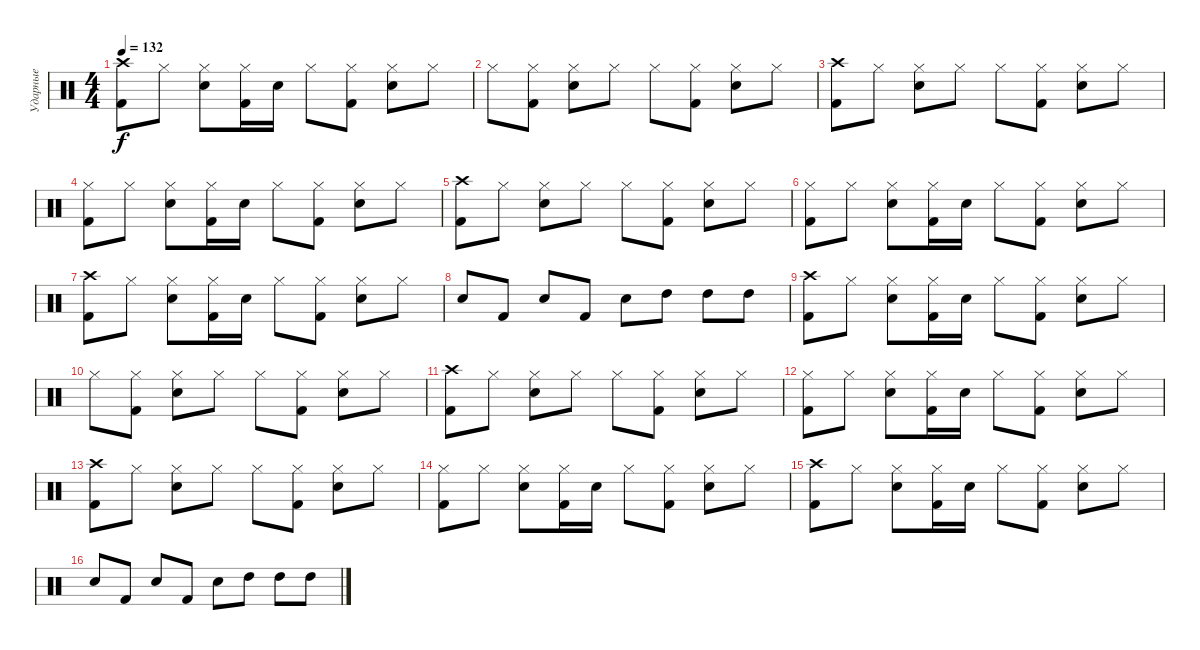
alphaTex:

\track ("Ударные" "Ударные") {instrument percussion}
\staff {score}
\articulation defaults
\ts (4 4)
\tempo 132
\clef neutral
\ks c
("Kick (hit) 2" "Crash high (hit)").8{dy f} "Hi-Hat (closed)".8 ("Electric Snare (hit)" "Hi-Hat (closed)").8 ("Kick (hit) 2" "Hi-Hat (closed)").16 "Electric Snare (hit)".16 "Hi-Hat (closed)".8 ("Kick (hit) 2" "Hi-Hat (closed)").8 ("Electric Snare (hit)" "Hi-Hat (closed)").8 "Hi-Hat (closed)".8 |
"Hi-Hat (closed)".8 ("Kick (hit) 2" "Hi-Hat (closed)").8 ("Electric Snare (hit)" "Hi-Hat (closed)").8 "Hi-Hat (closed)".8 "Hi-Hat (closed)".8 ("Kick (hit) 2" "Hi-Hat (closed)").8 ("Electric Snare (hit)" "Hi-Hat (closed)").8 "Hi-Hat (closed)".8 |
("Kick (hit) 2" "Crash high (hit)").8 "Hi-Hat (closed)".8 ("Electric Snare (hit)" "Hi-Hat (closed)").8 "Hi-Hat (closed)".8 "Hi-Hat (closed)".8 ("Kick (hit) 2" "Hi-Hat (closed)").8 ("Electric Snare (hit)" "Hi-Hat (closed)").8 "Hi-Hat (closed)".8 |
("Kick (hit) 2" "Hi-Hat (closed)").8 "Hi-Hat (closed)".8 ("Electric Snare (hit)" "Hi-Hat (closed)").8 ("Kick (hit) 2" "Hi-Hat (closed)").16 "Electric Snare (hit)".16 "Hi-Hat (closed)".8 ("Kick (hit) 2" "Hi-Hat (closed)").8 ("Electric Snare (hit)" "Hi-Hat (closed)").8 "Hi-Hat (closed)".8 |
("Kick (hit) 2" "Crash high (hit)").8 "Hi-Hat (closed)".8 ("Electric Snare (hit)" "Hi-Hat (closed)").8 "Hi-Hat (closed)".8 "Hi-Hat (closed)".8 ("Kick (hit) 2" "Hi-Hat (closed)").8 ("Electric Snare (hit)" "Hi-Hat (closed)").8 "Hi-Hat (closed)".8 |
("Kick (hit) 2" "Hi-Hat (closed)").8 "Hi-Hat (closed)".8 ("Electric Snare (hit)" "Hi-Hat (closed)").8 ("Kick (hit) 2" "Hi-Hat (closed)").16 "Electric Snare (hit)".16 "Hi-Hat (closed)".8 ("Kick (hit) 2" "Hi-Hat (closed)").8 ("Electric Snare (hit)" "Hi-Hat (closed)").8 "Hi-Hat (closed)".8 |
("Kick (hit) 2" "Crash high (hit)").8 "Hi-Hat (closed)".8 ("Electric Snare (hit)" "Hi-Hat (closed)").8 ("Kick (hit) 2" "Hi-Hat (closed)").16 "Electric Snare (hit)".16 "Hi-Hat (closed)".8 ("Kick (hit) 2" "Hi-Hat (closed)").8 ("Electric Snare (hit)" "Hi-Hat (closed)").8 "Hi-Hat (closed)".8 |
"Electric Snare (hit)".8 "Kick (hit) 2".8 "Electric Snare (hit)".8 "Kick (hit) 2".8 "Electric Snare (hit)".8 "High Tom (hit)".8 "High Tom (hit)".8 "High Tom (hit)".8 |
("Kick (hit) 2" "Crash high (hit)").8 "Hi-Hat (closed)".8 ("Electric Snare (hit)" "Hi-Hat (closed)").8 ("Kick (hit) 2" "Hi-Hat (closed)").16 "Electric Snare (hit)".16 "Hi-Hat (closed)".8 ("Kick (hit) 2" "Hi-Hat (closed)").8 ("Electric Snare (hit)" "Hi-Hat (closed)").8 "Hi-Hat (closed)".8 |
"Hi-Hat (closed)".8 ("Kick (hit) 2" "Hi-Hat (closed)").8 ("Electric Snare (hit)" "Hi-Hat (closed)").8 "Hi-Hat (closed)".8 "Hi-Hat (closed)".8 ("Kick (hit) 2" "Hi-Hat (closed)").8 ("Electric Snare (hit)" "Hi-Hat (closed)").8 "Hi-Hat (closed)".8 |
("Kick (hit) 2" "Crash high (hit)").8 "Hi-Hat (closed)".8 ("Electric Snare (hit)" "Hi-Hat (closed)").8 "Hi-Hat (closed)".8 "Hi-Hat (closed)".8 ("Kick (hit) 2" "Hi-Hat (closed)").8 ("Electric Snare (hit)" "Hi-Hat (closed)").8 "Hi-Hat (closed)".8 |
("Kick (hit) 2" "Hi-Hat (closed)").8 "Hi-Hat (closed)".8 ("Electric Snare (hit)" "Hi-Hat (closed)").8 ("Kick (hit) 2" "Hi-Hat (closed)").16 "Electric Snare (hit)".16 "Hi-Hat (closed)".8 ("Kick (hit) 2" "Hi-Hat (closed)").8 ("Electric Snare (hit)" "Hi-Hat (closed)").8 "Hi-Hat (closed)".8 |
("Kick (hit) 2" "Crash high (hit)").8 "Hi-Hat (closed)".8 ("Electric Snare (hit)" "Hi-Hat (closed)").8 "Hi-Hat (closed)".8 "Hi-Hat (closed)".8 ("Kick (hit) 2" "Hi-Hat (closed)").8 ("Electric Snare (hit)" "Hi-Hat (closed)").8 "Hi-Hat (closed)".8 |
("Kick (hit) 2" "Hi-Hat (closed)").8 "Hi-Hat (closed)".8 ("Electric Snare (hit)" "Hi-Hat (closed)").8 ("Kick (hit) 2" "Hi-Hat (closed)").16 "Electric Snare (hit)".16 "Hi-Hat (closed)".8 ("Kick (hit) 2" "Hi-Hat (closed)").8 ("Electric Snare (hit)" "Hi-Hat (closed)").8 "Hi-Hat (closed)".8 |
("Kick (hit) 2" "Crash high (hit)").8 "Hi-Hat (closed)".8 ("Electric Snare (hit)" "Hi-Hat (closed)").8 ("Kick (hit) 2" "Hi-Hat (closed)").16 "Electric Snare (hit)".16 "Hi-Hat (closed)".8 ("Kick (hit) 2" "Hi-Hat (closed)").8 ("Electric Snare (hit)" "Hi-Hat (closed)").8 "Hi-Hat (closed)".8 |
"Electric Snare (hit)".8 "Kick (hit) 2".8 "Electric Snare (hit)".8 "Kick (hit) 2".8 "Electric Snare (hit)".8 "High Tom (hit)".8 "High Tom (hit)".8 "High Tom (hit)".8
